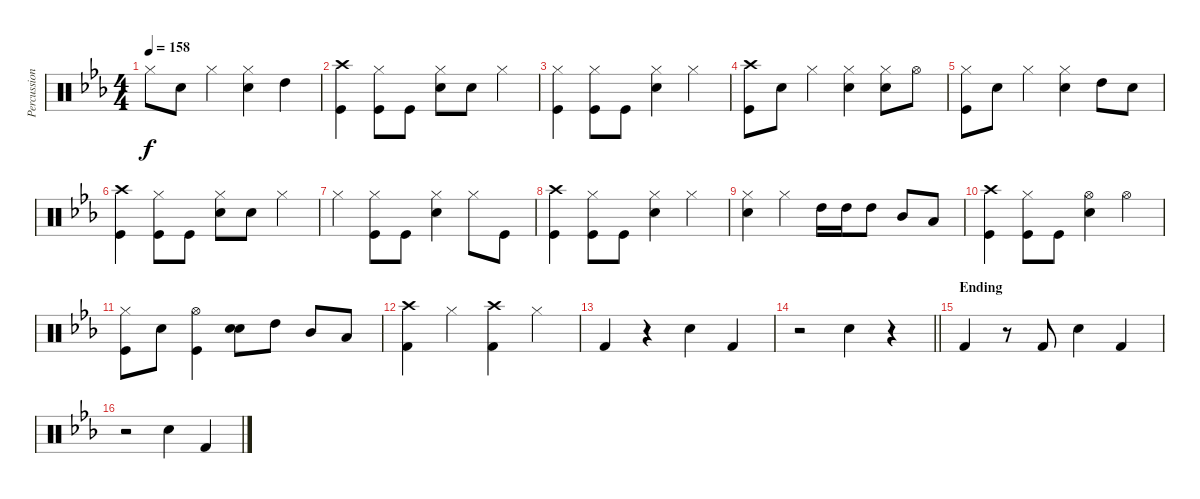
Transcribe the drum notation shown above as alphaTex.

\track ("Percussion" "Percussion") {instrument percussion}
\staff {score}
\articulation defaults
\ts (4 4)
\tempo 158
\clef neutral
\ks eb "Hi-Hat (closed)".8{dy f} "Snare (hit) 2".8 "Hi-Hat (closed)".4
("Hi-Hat (closed)" "Snare (hit) 2").4 "High Tom (hit)".4 |
("Crash high (hit)" "Kick (hit)").4 ("Hi-Hat (closed)" "Kick (hit)").8 "Kick (hit)".8 ("Hi-Hat (closed)" "Snare (hit) 2").8 "Snare (hit) 2".8 "Hi-Hat (closed)".4 |
("Hi-Hat (closed)" "Kick (hit)").4 ("Hi-Hat (closed)" "Kick (hit)").8 "Kick (hit)".8 ("Hi-Hat (closed)" "Snare (hit) 2").4 "Hi-Hat (closed)".4 |
("Crash high (hit)" "Kick (hit)").8 "Snare (hit) 2".8 "Hi-Hat (closed)".4 ("Hi-Hat (closed)" "Snare (hit) 2").4 ("Hi-Hat (closed)" "Snare (hit) 2").8 "Hi-Hat (open)".8 |
("Hi-Hat (closed)" "Kick (hit)").8 "Snare (hit) 2".8 "Hi-Hat (closed)".4 ("Hi-Hat (closed)" "Snare (hit) 2").4 "High Tom (hit)".8 "Snare (hit) 2".8 |
("Kick (hit)" "Crash high (hit)").4 ("Hi-Hat (closed)" "Kick (hit)").8 "Kick (hit)".8 ("Hi-Hat (closed)" "Snare (hit) 2").8 "Snare (hit) 2".8 "Hi-Hat (closed)".4 |
"Hi-Hat (closed)".4 ("Hi-Hat (closed)" "Kick (hit)").8 "Kick (hit)".8 ("Hi-Hat (closed)" "Snare (hit) 2").4 "Hi-Hat (closed)".8 "Kick (hit)".8 |
("Crash high (hit)" "Kick (hit)").4 ("Hi-Hat (closed)" "Kick (hit)").8 "Kick (hit)".8 ("Hi-Hat (closed)" "Snare (hit) 2").4 "Hi-Hat (closed)".4 |
("Hi-Hat (closed)" "Snare (hit) 2").4 "Hi-Hat (closed)".4 "High Tom (hit)".16 "High Tom (hit)".16 "High Tom (hit)".8 "Mid Tom (hit)".8 "Low Tom (hit)".8 |
("Crash high (hit)" "Kick (hit)").4 ("Hi-Hat (closed)" "Kick (hit)").8 "Kick (hit)".8 ("Hi-Hat (open)" "Snare (hit) 2").4 "Hi-Hat (open)".4 |
("Hi-Hat (closed)" "Kick (hit)").8 "Snare (hit) 2".8 ("Hi-Hat (open)" "Kick (hit)").4 ("Snare (hit) 2" "Snare (hit) 2").8 "High Tom (hit)".8 "Mid Tom (hit)".8 "Low Tom (hit)".8 |
("Crash high (hit)" "Kick (hit) 2").4 "Hi-Hat (closed)".4 ("Crash high (hit)" "Kick (hit) 2").4 "Hi-Hat (closed)".4 |
"Kick (hit) 2".4 r.4 "Snare (hit) 2".4 "Kick (hit) 2".4 |
\barLineRight lightlight
r.2 "Snare (hit) 2".4 r.4 |
\section ("" "Ending")
"Kick (hit) 2".4 r.8 "Kick (hit) 2".8 "Snare (hit) 2".4 "Kick (hit) 2".4 |
r.2 "Snare (hit) 2".4 "Kick (hit) 2".4
